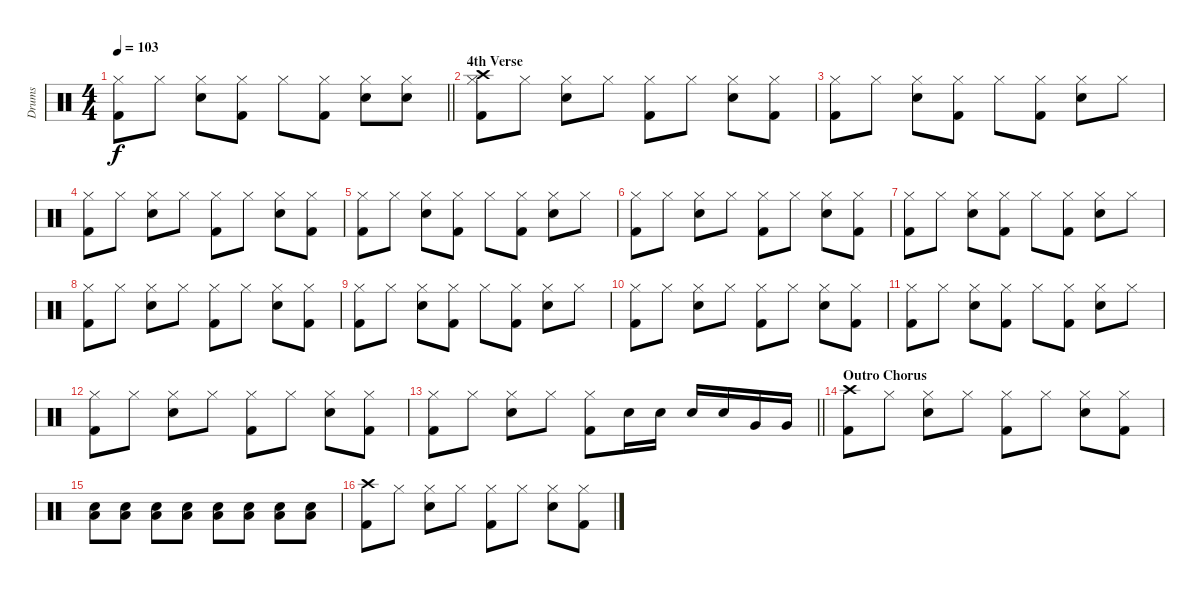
\track ("Drums" "Drums") {instrument percussion}
\staff {score}
\articulation defaults
\ts (4 4)
\tempo 103
\clef neutral
\barLineRight lightlight
\ks c
("Hi-Hat (closed)" "Kick (hit) 2").8{dy f} "Hi-Hat (closed)".8 ("Hi-Hat (closed)" "Snare (hit) 2").8 ("Hi-Hat (closed)" "Kick (hit) 2").8 "Hi-Hat (closed)".8 ("Hi-Hat (closed)" "Kick (hit) 2").8 ("Hi-Hat (closed)" "Snare (hit) 2").8 ("Hi-Hat (closed)" "Snare (hit) 2").8 |
\section ("" "4th Verse")
("Hi-Hat (closed)" "Crash high (hit)" "Kick (hit) 2").8 "Hi-Hat (closed)".8 ("Hi-Hat (closed)" "Snare (hit) 2").8 "Hi-Hat (closed)".8 ("Hi-Hat (closed)" "Kick (hit) 2").8 "Hi-Hat (closed)".8 ("Hi-Hat (closed)" "Snare (hit) 2").8 ("Hi-Hat (closed)" "Kick (hit) 2").8 |
("Hi-Hat (closed)" "Kick (hit) 2").8 "Hi-Hat (closed)".8 ("Hi-Hat (closed)" "Snare (hit) 2").8 ("Hi-Hat (closed)" "Kick (hit) 2").8 "Hi-Hat (closed)".8 ("Hi-Hat (closed)" "Kick (hit) 2").8 ("Hi-Hat (closed)" "Snare (hit) 2").8 "Hi-Hat (closed)".8 |
("Hi-Hat (closed)" "Kick (hit) 2").8 "Hi-Hat (closed)".8 ("Hi-Hat (closed)" "Snare (hit) 2").8 "Hi-Hat (closed)".8 ("Hi-Hat (closed)" "Kick (hit) 2").8 "Hi-Hat (closed)".8 ("Hi-Hat (closed)" "Snare (hit) 2").8 ("Hi-Hat (closed)" "Kick (hit) 2").8 |
("Hi-Hat (closed)" "Kick (hit) 2").8 "Hi-Hat (closed)".8 ("Hi-Hat (closed)" "Snare (hit) 2").8 ("Hi-Hat (closed)" "Kick (hit) 2").8 "Hi-Hat (closed)".8 ("Hi-Hat (closed)" "Kick (hit) 2").8 ("Hi-Hat (closed)" "Snare (hit) 2").8 "Hi-Hat (closed)".8 |
("Hi-Hat (closed)" "Kick (hit) 2").8 "Hi-Hat (closed)".8 ("Hi-Hat (closed)" "Snare (hit) 2").8 "Hi-Hat (closed)".8 ("Hi-Hat (closed)" "Kick (hit) 2").8 "Hi-Hat (closed)".8 ("Hi-Hat (closed)" "Snare (hit) 2").8 ("Hi-Hat (closed)" "Kick (hit) 2").8 |
("Hi-Hat (closed)" "Kick (hit) 2").8 "Hi-Hat (closed)".8 ("Hi-Hat (closed)" "Snare (hit) 2").8 ("Hi-Hat (closed)" "Kick (hit) 2").8 "Hi-Hat (closed)".8 ("Hi-Hat (closed)" "Kick (hit) 2").8 ("Hi-Hat (closed)" "Snare (hit) 2").8 "Hi-Hat (closed)".8 |
("Hi-Hat (closed)" "Kick (hit) 2").8 "Hi-Hat (closed)".8 ("Hi-Hat (closed)" "Snare (hit) 2").8 "Hi-Hat (closed)".8 ("Hi-Hat (closed)" "Kick (hit) 2").8 "Hi-Hat (closed)".8 ("Hi-Hat (closed)" "Snare (hit) 2").8 ("Hi-Hat (closed)" "Kick (hit) 2").8 |
("Hi-Hat (closed)" "Kick (hit) 2").8 "Hi-Hat (closed)".8 ("Hi-Hat (closed)" "Snare (hit) 2").8 ("Hi-Hat (closed)" "Kick (hit) 2").8 "Hi-Hat (closed)".8 ("Hi-Hat (closed)" "Kick (hit) 2").8 ("Hi-Hat (closed)" "Snare (hit) 2").8 "Hi-Hat (closed)".8 |
("Hi-Hat (closed)" "Kick (hit) 2").8 "Hi-Hat (closed)".8 ("Hi-Hat (closed)" "Snare (hit) 2").8 "Hi-Hat (closed)".8 ("Hi-Hat (closed)" "Kick (hit) 2").8 "Hi-Hat (closed)".8 ("Hi-Hat (closed)" "Snare (hit) 2").8 ("Hi-Hat (closed)" "Kick (hit) 2").8 |
("Hi-Hat (closed)" "Kick (hit) 2").8 "Hi-Hat (closed)".8 ("Hi-Hat (closed)" "Snare (hit) 2").8 ("Hi-Hat (closed)" "Kick (hit) 2").8 "Hi-Hat (closed)".8 ("Hi-Hat (closed)" "Kick (hit) 2").8 ("Hi-Hat (closed)" "Snare (hit) 2").8 "Hi-Hat (closed)".8 |
("Hi-Hat (closed)" "Kick (hit) 2").8 "Hi-Hat (closed)".8 ("Hi-Hat (closed)" "Snare (hit) 2").8 "Hi-Hat (closed)".8 ("Hi-Hat (closed)" "Kick (hit) 2").8 "Hi-Hat (closed)".8 ("Hi-Hat (closed)" "Snare (hit) 2").8 ("Hi-Hat (closed)" "Kick (hit) 2").8 |
\barLineRight lightlight
("Hi-Hat (closed)" "Kick (hit) 2").8 "Hi-Hat (closed)".8 ("Hi-Hat (closed)" "Snare (hit) 2").8 "Hi-Hat (closed)".8 ("Hi-Hat (closed)" "Kick (hit) 2").8 "Snare (hit) 2".16 "Snare (hit) 2".16 "Snare (hit) 2".16 "Snare (hit) 2".16 "Very Low Tom (hit)".16 "Very Low Tom (hit)".16 |
\section ("" "Outro Chorus")
("Crash high (hit)" "Kick (hit) 2").8 "Hi-Hat (closed)".8 ("Hi-Hat (closed)" "Snare (hit) 2").8 "Hi-Hat (closed)".8 ("Hi-Hat (closed)" "Kick (hit) 2").8 "Hi-Hat (closed)".8 ("Hi-Hat (closed)" "Snare (hit) 2").8 ("Hi-Hat (closed)" "Kick (hit) 2").8 |
("Snare (hit) 2" "Low Floor Tom (hit)").8 ("Snare (hit) 2" "Low Floor Tom (hit)").8 ("Snare (hit) 2" "Low Floor Tom (hit)").8 ("Snare (hit) 2" "Low Floor Tom (hit)").8 ("Snare (hit) 2" "Low Floor Tom (hit)").8 ("Snare (hit) 2" "Low Floor Tom (hit)").8 ("Snare (hit) 2" "Low Floor Tom (hit)").8 ("Snare (hit) 2" "Low Floor Tom (hit)").8 |
("Crash high (hit)" "Kick (hit) 2").8 "Hi-Hat (closed)".8 ("Hi-Hat (closed)" "Snare (hit) 2").8 "Hi-Hat (closed)".8 ("Hi-Hat (closed)" "Kick (hit) 2").8 "Hi-Hat (closed)".8 ("Hi-Hat (closed)" "Snare (hit) 2").8 ("Hi-Hat (closed)" "Kick (hit) 2").8
